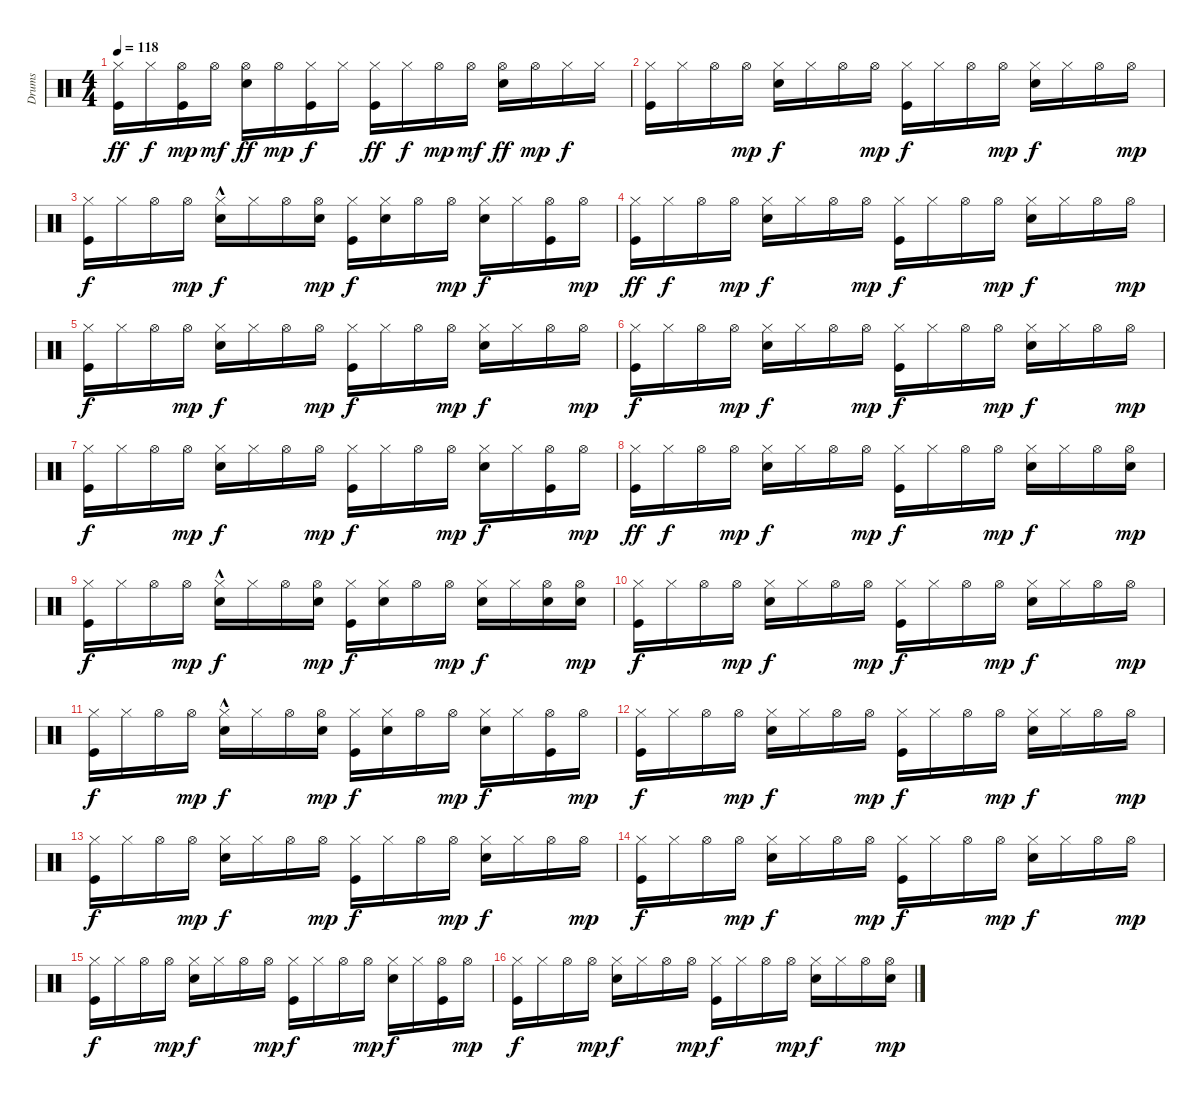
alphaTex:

\track ("Drums" "Drums") {instrument percussion}
\staff {score}
\articulation defaults
\ts (4 4)
\tempo 118
\clef neutral
\ks c
("Kick (hit)" "Hi-Hat (closed)").16{dy ff} "Hi-Hat (closed)".16{dy f} ("Kick (hit)" "Hi-Hat (open)").16{dy mp} "Hi-Hat (open)".16{dy mf} ("Electric Snare (hit)" "Hi-Hat (open)").16{dy ff} "Hi-Hat (open)".16{dy mp} ("Kick (hit)" "Hi-Hat (closed)").16{dy f} "Hi-Hat (closed)".16 ("Kick (hit)" "Hi-Hat (closed)").16{dy ff} "Hi-Hat (closed)".16{dy f} "Hi-Hat (open)".16{dy mp} "Hi-Hat (open)".16{dy mf} ("Electric Snare (hit)" "Hi-Hat (open)").16{dy ff} "Hi-Hat (open)".16{dy mp} "Hi-Hat (closed)".16{dy f} "Hi-Hat (closed)".16 |
("Hi-Hat (closed)" "Kick (hit)").16 "Hi-Hat (closed)".16 "Hi-Hat (open)".16 "Hi-Hat (open)".16{dy mp} ("Hi-Hat (closed)" "Electric Snare (hit)").16{dy f} "Hi-Hat (closed)".16 "Hi-Hat (open)".16 "Hi-Hat (open)".16{dy mp} ("Kick (hit)" "Hi-Hat (closed)").16{dy f} "Hi-Hat (closed)".16 "Hi-Hat (open)".16 "Hi-Hat (open)".16{dy mp} ("Hi-Hat (closed)" "Electric Snare (hit)").16{dy f} "Hi-Hat (closed)".16 "Hi-Hat (open)".16 "Hi-Hat (open)".16{dy mp} |
("Hi-Hat (closed)" "Kick (hit)").16{dy f} "Hi-Hat (closed)".16 "Hi-Hat (open)".16 "Hi-Hat (open)".16{dy mp} ("Hi-Hat (closed)" "Electric Snare (hit)"{hac}).16{dy f} "Hi-Hat (closed)".16 "Hi-Hat (open)".16 ("Electric Snare (hit)" "Hi-Hat (open)").16{dy mp} ("Kick (hit)" "Hi-Hat (closed)").16{dy f} ("Electric Snare (hit)" "Hi-Hat (closed)").16 "Hi-Hat (open)".16 "Hi-Hat (open)".16{dy mp} ("Hi-Hat (closed)" "Electric Snare (hit)").16{dy f} "Hi-Hat (closed)".16 ("Kick (hit)" "Hi-Hat (open)").16 "Hi-Hat (open)".16{dy mp} |
("Hi-Hat (closed)" "Kick (hit)").16{dy ff} "Hi-Hat (closed)".16{dy f} "Hi-Hat (open)".16 "Hi-Hat (open)".16{dy mp} ("Hi-Hat (closed)" "Electric Snare (hit)").16{dy f} "Hi-Hat (closed)".16 "Hi-Hat (open)".16 "Hi-Hat (open)".16{dy mp} ("Kick (hit)" "Hi-Hat (closed)").16{dy f} "Hi-Hat (closed)".16 "Hi-Hat (open)".16 "Hi-Hat (open)".16{dy mp} ("Hi-Hat (closed)" "Electric Snare (hit)").16{dy f} "Hi-Hat (closed)".16 "Hi-Hat (open)".16 "Hi-Hat (open)".16{dy mp} |
("Hi-Hat (closed)" "Kick (hit)").16{dy f} "Hi-Hat (closed)".16 "Hi-Hat (open)".16 "Hi-Hat (open)".16{dy mp} ("Hi-Hat (closed)" "Electric Snare (hit)").16{dy f} "Hi-Hat (closed)".16 "Hi-Hat (open)".16 "Hi-Hat (open)".16{dy mp} ("Kick (hit)" "Hi-Hat (closed)").16{dy f} "Hi-Hat (closed)".16 "Hi-Hat (open)".16 "Hi-Hat (open)".16{dy mp} ("Hi-Hat (closed)" "Electric Snare (hit)").16{dy f} "Hi-Hat (closed)".16 "Hi-Hat (open)".16 "Hi-Hat (open)".16{dy mp} |
("Hi-Hat (closed)" "Kick (hit)").16{dy f} "Hi-Hat (closed)".16 "Hi-Hat (open)".16 "Hi-Hat (open)".16{dy mp} ("Hi-Hat (closed)" "Electric Snare (hit)").16{dy f} "Hi-Hat (closed)".16 "Hi-Hat (open)".16 "Hi-Hat (open)".16{dy mp} ("Kick (hit)" "Hi-Hat (closed)").16{dy f} "Hi-Hat (closed)".16 "Hi-Hat (open)".16 "Hi-Hat (open)".16{dy mp} ("Hi-Hat (closed)" "Electric Snare (hit)").16{dy f} "Hi-Hat (closed)".16 "Hi-Hat (open)".16 "Hi-Hat (open)".16{dy mp} |
("Hi-Hat (closed)" "Kick (hit)").16{dy f} "Hi-Hat (closed)".16 "Hi-Hat (open)".16 "Hi-Hat (open)".16{dy mp} ("Electric Snare (hit)" "Hi-Hat (closed)").16{dy f} "Hi-Hat (closed)".16 "Hi-Hat (open)".16 "Hi-Hat (open)".16{dy mp} ("Kick (hit)" "Hi-Hat (closed)").16{dy f} "Hi-Hat (closed)".16 "Hi-Hat (open)".16 "Hi-Hat (open)".16{dy mp} ("Hi-Hat (closed)" "Electric Snare (hit)").16{dy f} "Hi-Hat (closed)".16 ("Kick (hit)" "Hi-Hat (open)").16 "Hi-Hat (open)".16{dy mp} |
("Hi-Hat (closed)" "Kick (hit)").16{dy ff} "Hi-Hat (closed)".16{dy f} "Hi-Hat (open)".16 "Hi-Hat (open)".16{dy mp} ("Hi-Hat (closed)" "Electric Snare (hit)").16{dy f} "Hi-Hat (closed)".16 "Hi-Hat (open)".16 "Hi-Hat (open)".16{dy mp} ("Kick (hit)" "Hi-Hat (closed)").16{dy f} "Hi-Hat (closed)".16 "Hi-Hat (open)".16 "Hi-Hat (open)".16{dy mp} ("Hi-Hat (closed)" "Electric Snare (hit)").16{dy f} "Hi-Hat (closed)".16 "Hi-Hat (open)".16 ("Electric Snare (hit)" "Hi-Hat (open)").16{dy mp} |
("Hi-Hat (closed)" "Kick (hit)").16{dy f} "Hi-Hat (closed)".16 "Hi-Hat (open)".16 "Hi-Hat (open)".16{dy mp} ("Hi-Hat (closed)" "Electric Snare (hit)"{hac}).16{dy f} "Hi-Hat (closed)".16 "Hi-Hat (open)".16 ("Electric Snare (hit)" "Hi-Hat (open)").16{dy mp} ("Kick (hit)" "Hi-Hat (closed)").16{dy f} ("Electric Snare (hit)" "Hi-Hat (closed)").16 "Hi-Hat (open)".16 "Hi-Hat (open)".16{dy mp} ("Hi-Hat (closed)" "Electric Snare (hit)").16{dy f} "Hi-Hat (closed)".16 ("Electric Snare (hit)" "Hi-Hat (open)").16 ("Electric Snare (hit)" "Hi-Hat (open)").16{dy mp} |
("Hi-Hat (closed)" "Kick (hit)").16{dy f} "Hi-Hat (closed)".16 "Hi-Hat (open)".16 "Hi-Hat (open)".16{dy mp} ("Hi-Hat (closed)" "Electric Snare (hit)").16{dy f} "Hi-Hat (closed)".16 "Hi-Hat (open)".16 "Hi-Hat (open)".16{dy mp} ("Kick (hit)" "Hi-Hat (closed)").16{dy f} "Hi-Hat (closed)".16 "Hi-Hat (open)".16 "Hi-Hat (open)".16{dy mp} ("Hi-Hat (closed)" "Electric Snare (hit)").16{dy f} "Hi-Hat (closed)".16 "Hi-Hat (open)".16 "Hi-Hat (open)".16{dy mp} |
("Hi-Hat (closed)" "Kick (hit)").16{dy f} "Hi-Hat (closed)".16 "Hi-Hat (open)".16 "Hi-Hat (open)".16{dy mp} ("Hi-Hat (closed)" "Electric Snare (hit)"{hac}).16{dy f} "Hi-Hat (closed)".16 "Hi-Hat (open)".16 ("Electric Snare (hit)" "Hi-Hat (open)").16{dy mp} ("Kick (hit)" "Hi-Hat (closed)").16{dy f} ("Electric Snare (hit)" "Hi-Hat (closed)").16 "Hi-Hat (open)".16 "Hi-Hat (open)".16{dy mp} ("Hi-Hat (closed)" "Electric Snare (hit)").16{dy f} "Hi-Hat (closed)".16 ("Kick (hit)" "Hi-Hat (open)").16 "Hi-Hat (open)".16{dy mp} |
("Hi-Hat (closed)" "Kick (hit)").16{dy f} "Hi-Hat (closed)".16 "Hi-Hat (open)".16 "Hi-Hat (open)".16{dy mp} ("Hi-Hat (closed)" "Electric Snare (hit)").16{dy f} "Hi-Hat (closed)".16 "Hi-Hat (open)".16 "Hi-Hat (open)".16{dy mp} ("Kick (hit)" "Hi-Hat (closed)").16{dy f} "Hi-Hat (closed)".16 "Hi-Hat (open)".16 "Hi-Hat (open)".16{dy mp} ("Hi-Hat (closed)" "Electric Snare (hit)").16{dy f} "Hi-Hat (closed)".16 "Hi-Hat (open)".16 "Hi-Hat (open)".16{dy mp} |
("Hi-Hat (closed)" "Kick (hit)").16{dy f} "Hi-Hat (closed)".16 "Hi-Hat (open)".16 "Hi-Hat (open)".16{dy mp} ("Hi-Hat (closed)" "Electric Snare (hit)").16{dy f} "Hi-Hat (closed)".16 "Hi-Hat (open)".16 "Hi-Hat (open)".16{dy mp} ("Kick (hit)" "Hi-Hat (closed)").16{dy f} "Hi-Hat (closed)".16 "Hi-Hat (open)".16 "Hi-Hat (open)".16{dy mp} ("Hi-Hat (closed)" "Electric Snare (hit)").16{dy f} "Hi-Hat (closed)".16 "Hi-Hat (open)".16 "Hi-Hat (open)".16{dy mp} |
("Hi-Hat (closed)" "Kick (hit)").16{dy f} "Hi-Hat (closed)".16 "Hi-Hat (open)".16 "Hi-Hat (open)".16{dy mp} ("Hi-Hat (closed)" "Electric Snare (hit)").16{dy f} "Hi-Hat (closed)".16 "Hi-Hat (open)".16 "Hi-Hat (open)".16{dy mp} ("Kick (hit)" "Hi-Hat (closed)").16{dy f} "Hi-Hat (closed)".16 "Hi-Hat (open)".16 "Hi-Hat (open)".16{dy mp} ("Hi-Hat (closed)" "Electric Snare (hit)").16{dy f} "Hi-Hat (closed)".16 "Hi-Hat (open)".16 "Hi-Hat (open)".16{dy mp} |
("Hi-Hat (closed)" "Kick (hit)").16{dy f} "Hi-Hat (closed)".16 "Hi-Hat (open)".16 "Hi-Hat (open)".16{dy mp} ("Electric Snare (hit)" "Hi-Hat (closed)").16{dy f} "Hi-Hat (closed)".16 "Hi-Hat (open)".16 "Hi-Hat (open)".16{dy mp} ("Kick (hit)" "Hi-Hat (closed)").16{dy f} "Hi-Hat (closed)".16 "Hi-Hat (open)".16 "Hi-Hat (open)".16{dy mp} ("Hi-Hat (closed)" "Electric Snare (hit)").16{dy f} "Hi-Hat (closed)".16 ("Kick (hit)" "Hi-Hat (open)").16 "Hi-Hat (open)".16{dy mp} |
("Hi-Hat (closed)" "Kick (hit)").16{dy f} "Hi-Hat (closed)".16 "Hi-Hat (open)".16 "Hi-Hat (open)".16{dy mp} ("Hi-Hat (closed)" "Electric Snare (hit)").16{dy f} "Hi-Hat (closed)".16 "Hi-Hat (open)".16 "Hi-Hat (open)".16{dy mp} ("Kick (hit)" "Hi-Hat (closed)").16{dy f} "Hi-Hat (closed)".16 "Hi-Hat (open)".16 "Hi-Hat (open)".16{dy mp} ("Hi-Hat (closed)" "Electric Snare (hit)").16{dy f} "Hi-Hat (closed)".16 "Hi-Hat (open)".16 ("Electric Snare (hit)" "Hi-Hat (open)").16{dy mp}
